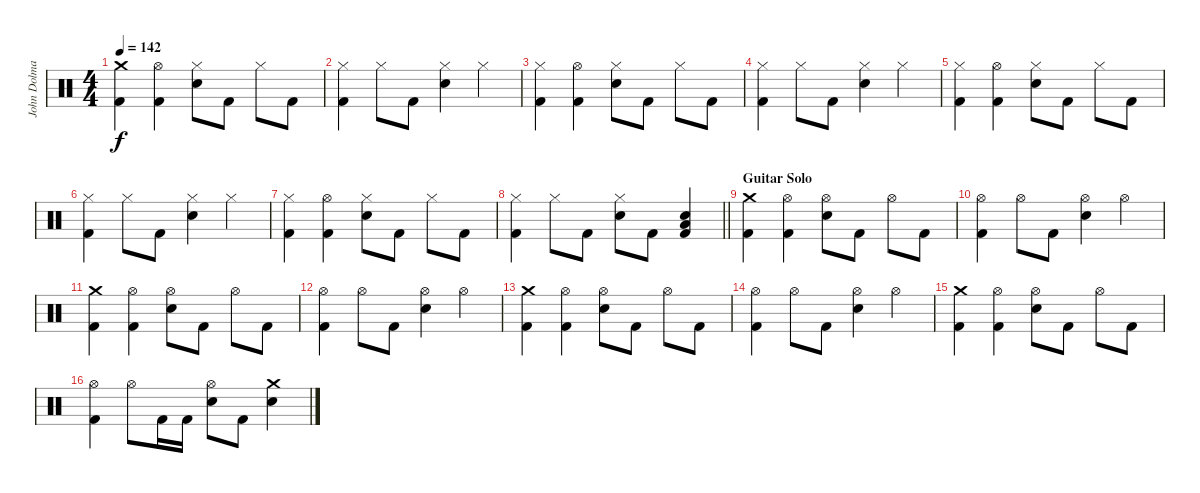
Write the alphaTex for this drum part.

\track ("John Dolmayan" "John Dolma") {instrument percussion}
\staff {score}
\articulation defaults
\ts (4 4)
\tempo 142
\clef neutral
\ks c
("Crash medium (hit)" "Kick (hit) 2").4{dy f} ("Hi-Hat (open)" "Kick (hit) 2").4 ("Hi-Hat (closed)" "Electric Snare (hit)").8 "Kick (hit) 2".8 "Hi-Hat (closed)".8 "Kick (hit) 2".8 |
("Hi-Hat (closed)" "Kick (hit) 2").4 "Hi-Hat (closed)".8 "Kick (hit) 2".8 ("Hi-Hat (closed)" "Electric Snare (hit)").4 "Hi-Hat (closed)".4 |
("Hi-Hat (closed)" "Kick (hit) 2").4 ("Hi-Hat (open)" "Kick (hit) 2").4 ("Hi-Hat (closed)" "Electric Snare (hit)").8 "Kick (hit) 2".8 "Hi-Hat (closed)".8 "Kick (hit) 2".8 |
("Hi-Hat (closed)" "Kick (hit) 2").4 "Hi-Hat (closed)".8 "Kick (hit) 2".8 ("Hi-Hat (closed)" "Electric Snare (hit)").4 "Hi-Hat (closed)".4 |
("Hi-Hat (closed)" "Kick (hit) 2").4 ("Hi-Hat (open)" "Kick (hit) 2").4 ("Hi-Hat (closed)" "Electric Snare (hit)").8 "Kick (hit) 2".8 "Hi-Hat (closed)".8 "Kick (hit) 2".8 |
("Hi-Hat (closed)" "Kick (hit) 2").4 "Hi-Hat (closed)".8 "Kick (hit) 2".8 ("Hi-Hat (closed)" "Electric Snare (hit)").4 "Hi-Hat (closed)".4 |
("Hi-Hat (closed)" "Kick (hit) 2").4 ("Hi-Hat (open)" "Kick (hit) 2").4 ("Hi-Hat (closed)" "Electric Snare (hit)").8 "Kick (hit) 2".8 "Hi-Hat (closed)".8 "Kick (hit) 2".8 |
\barLineRight lightlight
("Hi-Hat (closed)" "Kick (hit) 2").4 "Hi-Hat (closed)".8 "Kick (hit) 2".8 ("Hi-Hat (closed)" "Electric Snare (hit)").8 "Kick (hit) 2".8 ("Low Floor Tom (hit)" "Electric Snare (hit)" "Kick (hit) 2").4 |
\section ("" "Guitar Solo")
("Crash medium (hit)" "Kick (hit) 2").4 ("Hi-Hat (open)" "Kick (hit) 2").4 ("Hi-Hat (open)" "Electric Snare (hit)").8 "Kick (hit) 2".8 "Hi-Hat (open)".8 "Kick (hit) 2".8 |
("Hi-Hat (open)" "Kick (hit) 2").4 "Hi-Hat (open)".8 "Kick (hit) 2".8 ("Hi-Hat (open)" "Electric Snare (hit)").4 "Hi-Hat (open)".4 |
("Crash medium (hit)" "Kick (hit) 2").4 ("Hi-Hat (open)" "Kick (hit) 2").4 ("Hi-Hat (open)" "Electric Snare (hit)").8 "Kick (hit) 2".8 "Hi-Hat (open)".8 "Kick (hit) 2".8 |
("Hi-Hat (open)" "Kick (hit) 2").4 "Hi-Hat (open)".8 "Kick (hit) 2".8 ("Hi-Hat (open)" "Electric Snare (hit)").4 "Hi-Hat (open)".4 |
("Crash medium (hit)" "Kick (hit) 2").4 ("Hi-Hat (open)" "Kick (hit) 2").4 ("Hi-Hat (open)" "Electric Snare (hit)").8 "Kick (hit) 2".8 "Hi-Hat (open)".8 "Kick (hit) 2".8 |
("Hi-Hat (open)" "Kick (hit) 2").4 "Hi-Hat (open)".8 "Kick (hit) 2".8 ("Hi-Hat (open)" "Electric Snare (hit)").4 "Hi-Hat (open)".4 |
("Crash medium (hit)" "Kick (hit) 2").4 ("Hi-Hat (open)" "Kick (hit) 2").4 ("Hi-Hat (open)" "Electric Snare (hit)").8 "Kick (hit) 2".8 "Hi-Hat (open)".8 "Kick (hit) 2".8 |
("Hi-Hat (open)" "Kick (hit) 2").4 "Hi-Hat (open)".8 "Kick (hit) 2".16 "Kick (hit) 2".16 ("Hi-Hat (open)" "Electric Snare (hit)").8 "Kick (hit) 2".8 ("Crash medium (hit)" "Electric Snare (hit)").4
